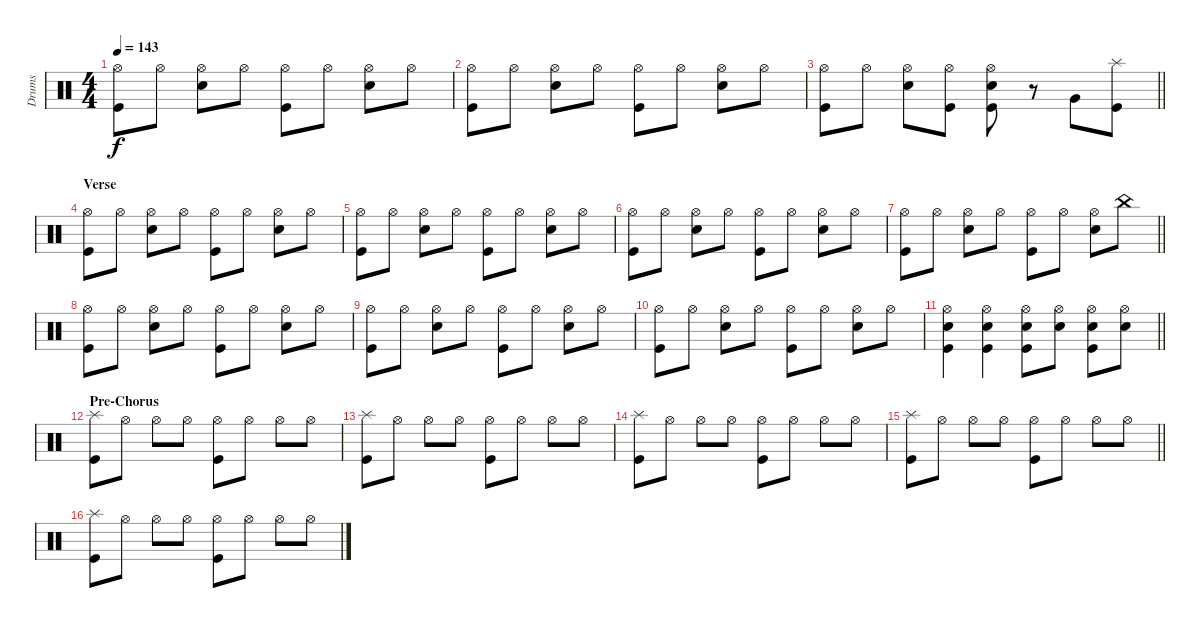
\track ("Drums" "Drums") {instrument percussion}
\staff
\articulation defaults
\ts (4 4)
\tempo 143
\clef neutral
\ks c
("Hi-Hat (open)" "Kick (hit)").8{dy f} "Hi-Hat (open)".8 ("Hi-Hat (open)" "Snare (hit) 2").8 "Hi-Hat (open)".8 ("Hi-Hat (open)" "Kick (hit)").8 "Hi-Hat (open)".8 ("Hi-Hat (open)" "Snare (hit) 2").8 "Hi-Hat (open)".8 |
("Hi-Hat (open)" "Kick (hit)").8 "Hi-Hat (open)".8 ("Hi-Hat (open)" "Snare (hit) 2").8 "Hi-Hat (open)".8 ("Hi-Hat (open)" "Kick (hit)").8 "Hi-Hat (open)".8 ("Hi-Hat (open)" "Snare (hit) 2").8 "Hi-Hat (open)".8 |
\barLineRight lightlight
("Hi-Hat (open)" "Kick (hit)").8 "Hi-Hat (open)".8 ("Hi-Hat (open)" "Snare (hit) 2").8 ("Hi-Hat (open)" "Kick (hit)").8 ("Hi-Hat (open)" "Snare (hit) 2" "Kick (hit)").8 r.8 "Very Low Tom (hit)".8 ("Splash (hit)" "Kick (hit)").8 |
\section ("" "Verse")
("Hi-Hat (open)" "Kick (hit)").8 "Hi-Hat (open)".8 ("Hi-Hat (open)" "Snare (hit) 2").8 "Hi-Hat (open)".8 ("Hi-Hat (open)" "Kick (hit)").8 "Hi-Hat (open)".8 ("Hi-Hat (open)" "Snare (hit) 2").8 "Hi-Hat (open)".8 |
("Hi-Hat (open)" "Kick (hit)").8 "Hi-Hat (open)".8 ("Hi-Hat (open)" "Snare (hit) 2").8 "Hi-Hat (open)".8 ("Hi-Hat (open)" "Kick (hit)").8 "Hi-Hat (open)".8 ("Hi-Hat (open)" "Snare (hit) 2").8 "Hi-Hat (open)".8 |
("Hi-Hat (open)" "Kick (hit)").8 "Hi-Hat (open)".8 ("Hi-Hat (open)" "Snare (hit) 2").8 "Hi-Hat (open)".8 ("Hi-Hat (open)" "Kick (hit)").8 "Hi-Hat (open)".8 ("Hi-Hat (open)" "Snare (hit) 2").8 "Hi-Hat (open)".8 |
\barLineRight lightlight
("Hi-Hat (open)" "Kick (hit)").8 "Hi-Hat (open)".8 ("Hi-Hat (open)" "Snare (hit) 2").8 "Hi-Hat (open)".8 ("Hi-Hat (open)" "Kick (hit)").8 "Hi-Hat (open)".8 ("Hi-Hat (open)" "Snare (hit) 2").8 "China (hit)".8 |
("Hi-Hat (open)" "Kick (hit)").8 "Hi-Hat (open)".8 ("Hi-Hat (open)" "Snare (hit) 2").8 "Hi-Hat (open)".8 ("Hi-Hat (open)" "Kick (hit)").8 "Hi-Hat (open)".8 ("Hi-Hat (open)" "Snare (hit) 2").8 "Hi-Hat (open)".8 |
("Hi-Hat (open)" "Kick (hit)").8 "Hi-Hat (open)".8 ("Hi-Hat (open)" "Snare (hit) 2").8 "Hi-Hat (open)".8 ("Hi-Hat (open)" "Kick (hit)").8 "Hi-Hat (open)".8 ("Hi-Hat (open)" "Snare (hit) 2").8 "Hi-Hat (open)".8 |
("Hi-Hat (open)" "Kick (hit)").8 "Hi-Hat (open)".8 ("Hi-Hat (open)" "Snare (hit) 2").8 "Hi-Hat (open)".8 ("Hi-Hat (open)" "Kick (hit)").8 "Hi-Hat (open)".8 ("Hi-Hat (open)" "Snare (hit) 2").8 "Hi-Hat (open)".8 |
\barLineRight lightlight
("Hi-Hat (open)" "Snare (hit) 2" "Kick (hit)").4 ("Hi-Hat (open)" "Snare (hit) 2" "Kick (hit)").4 ("Hi-Hat (open)" "Snare (hit) 2" "Kick (hit)").8 ("Hi-Hat (open)" "Snare (hit) 2").8 ("Hi-Hat (open)" "Snare (hit) 2" "Kick (hit)").8 ("Hi-Hat (open)" "Snare (hit) 2").8 |
\section ("" "Pre-Chorus")
("Splash (hit)" "Kick (hit)").8 "Hi-Hat (open)".8 "Hi-Hat (open)".8 "Hi-Hat (open)".8 ("Hi-Hat (open)" "Kick (hit)").8 "Hi-Hat (open)".8 "Hi-Hat (open)".8 "Hi-Hat (open)".8 |
("Splash (hit)" "Kick (hit)").8 "Hi-Hat (open)".8 "Hi-Hat (open)".8 "Hi-Hat (open)".8 ("Hi-Hat (open)" "Kick (hit)").8 "Hi-Hat (open)".8 "Hi-Hat (open)".8 "Hi-Hat (open)".8 |
("Splash (hit)" "Kick (hit)").8 "Hi-Hat (open)".8 "Hi-Hat (open)".8 "Hi-Hat (open)".8 ("Hi-Hat (open)" "Kick (hit)").8 "Hi-Hat (open)".8 "Hi-Hat (open)".8 "Hi-Hat (open)".8 |
\barLineRight lightlight
("Splash (hit)" "Kick (hit)").8 "Hi-Hat (open)".8 "Hi-Hat (open)".8 "Hi-Hat (open)".8 ("Hi-Hat (open)" "Kick (hit)").8 "Hi-Hat (open)".8 "Hi-Hat (open)".8 "Hi-Hat (open)".8 |
("Splash (hit)" "Kick (hit)").8 "Hi-Hat (open)".8 "Hi-Hat (open)".8 "Hi-Hat (open)".8 ("Hi-Hat (open)" "Kick (hit)").8 "Hi-Hat (open)".8 "Hi-Hat (open)".8 "Hi-Hat (open)".8
